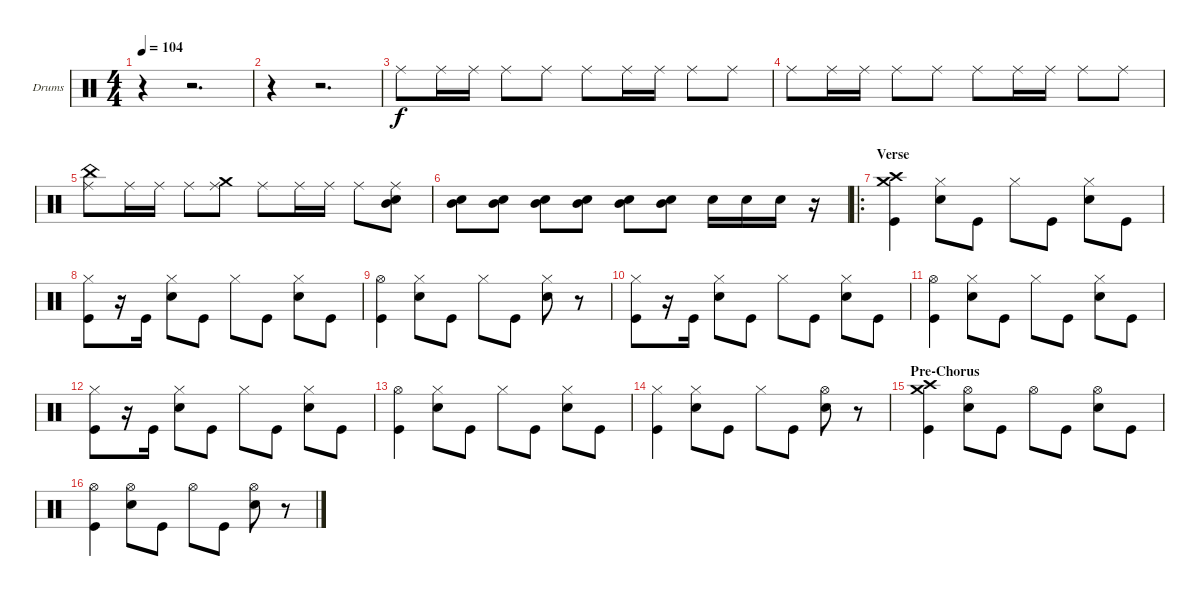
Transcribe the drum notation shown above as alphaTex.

\defaultSystemsLayout 4
\bracketExtendMode nobrackets
\firstSystemTrackNameOrientation horizontal
\otherSystemsTrackNameOrientation horizontal
\track ("Dave Krusen" "Drums") {instrument percussion}
\staff {score}
\articulation defaults
\ts (4 4)
\tempo 104
\clef neutral
\ks c
r.4{dy f} r.2{d} |
r.4 r.2{d} |
"Ride (middle)".8 "Ride (middle)".16 "Ride (middle)".16 "Ride (middle)".8 "Ride (middle)".8 "Ride (middle)".8 "Ride (middle)".16 "Ride (middle)".16 "Ride (middle)".8 "Ride (middle)".8 |
"Ride (middle)".8 "Ride (middle)".16 "Ride (middle)".16 "Ride (middle)".8 "Ride (middle)".8 "Ride (middle)".8 "Ride (middle)".16 "Ride (middle)".16 "Ride (middle)".8 "Ride (middle)".8 |
("China (hit)" "Ride (middle)").8 "Ride (middle)".16 "Ride (middle)".16 "Ride (middle)".8 ("Crash medium (hit)" "Ride (middle)").8 "Ride (middle)".8 "Ride (middle)".16 "Ride (middle)".16 "Ride (middle)".8 ("Mid Tom (hit)" "Snare (hit) 2" "Ride (middle)").8 |
("Mid Tom (hit)" "Snare (hit) 2").8 ("Mid Tom (hit)" "Snare (hit) 2").8 ("Mid Tom (hit)" "Snare (hit) 2").8 ("Mid Tom (hit)" "Snare (hit) 2").8 ("Mid Tom (hit)" "Snare (hit) 2").8 ("Mid Tom (hit)" "Snare (hit) 2").8 "Snare (hit) 2".16 "Snare (hit) 2".16 "Snare (hit) 2".16 r.16 |
\ro
\section ("" "Verse")
("Crash high (hit)" "Kick (hit)" "Crash medium (hit)").4 ("Snare (hit) 2" "Hi-Hat (closed)").8 "Kick (hit)".8 "Hi-Hat (closed)".8 "Kick (hit)".8 ("Snare (hit) 2" "Hi-Hat (closed)").8 "Kick (hit)".8 |
("Kick (hit)" "Hi-Hat (closed)").8 r.16 "Kick (hit)".16 ("Snare (hit) 2" "Hi-Hat (closed)").8 "Kick (hit)".8 "Hi-Hat (closed)".8 "Kick (hit)".8 ("Snare (hit) 2" "Hi-Hat (closed)").8 "Kick (hit)".8 |
("Kick (hit)" "Hi-Hat (open)").4 ("Snare (hit) 2" "Hi-Hat (closed)").8 "Kick (hit)".8 "Hi-Hat (closed)".8 "Kick (hit)".8 ("Snare (hit) 2" "Hi-Hat (closed)").8 r.8 |
("Kick (hit)" "Hi-Hat (closed)").8 r.16 "Kick (hit)".16 ("Snare (hit) 2" "Hi-Hat (closed)").8 "Kick (hit)".8 "Hi-Hat (closed)".8 "Kick (hit)".8 ("Snare (hit) 2" "Hi-Hat (closed)").8 "Kick (hit)".8 |
("Kick (hit)" "Hi-Hat (open)").4 ("Snare (hit) 2" "Hi-Hat (closed)").8 "Kick (hit)".8 "Hi-Hat (closed)".8 "Kick (hit)".8 ("Snare (hit) 2" "Hi-Hat (closed)").8 "Kick (hit)".8 |
("Kick (hit)" "Hi-Hat (closed)").8 r.16 "Kick (hit)".16 ("Snare (hit) 2" "Hi-Hat (closed)").8 "Kick (hit)".8 "Hi-Hat (closed)".8 "Kick (hit)".8 ("Snare (hit) 2" "Hi-Hat (closed)").8 "Kick (hit)".8 |
("Kick (hit)" "Hi-Hat (open)").4 ("Snare (hit) 2" "Hi-Hat (closed)").8 "Kick (hit)".8 "Hi-Hat (closed)".8 "Kick (hit)".8 ("Snare (hit) 2" "Hi-Hat (closed)").8 "Kick (hit)".8 |
("Kick (hit)" "Hi-Hat (closed)").4 ("Snare (hit) 2" "Hi-Hat (closed)").8 "Kick (hit)".8 "Hi-Hat (closed)".8 "Kick (hit)".8 ("Snare (hit) 2" "Hi-Hat (open)").8 r.8 |
\section ("" "Pre-Chorus")
("Crash high (hit)" "Kick (hit)" "Crash medium (hit)").4 ("Snare (hit) 2" "Hi-Hat (open)").8 "Kick (hit)".8 "Hi-Hat (open)".8 "Kick (hit)".8 ("Snare (hit) 2" "Hi-Hat (open)").8 "Kick (hit)".8 |
("Kick (hit)" "Hi-Hat (open)").4 ("Snare (hit) 2" "Hi-Hat (open)").8 "Kick (hit)".8 "Hi-Hat (open)".8 "Kick (hit)".8 ("Snare (hit) 2" "Hi-Hat (open)").8 r.8
